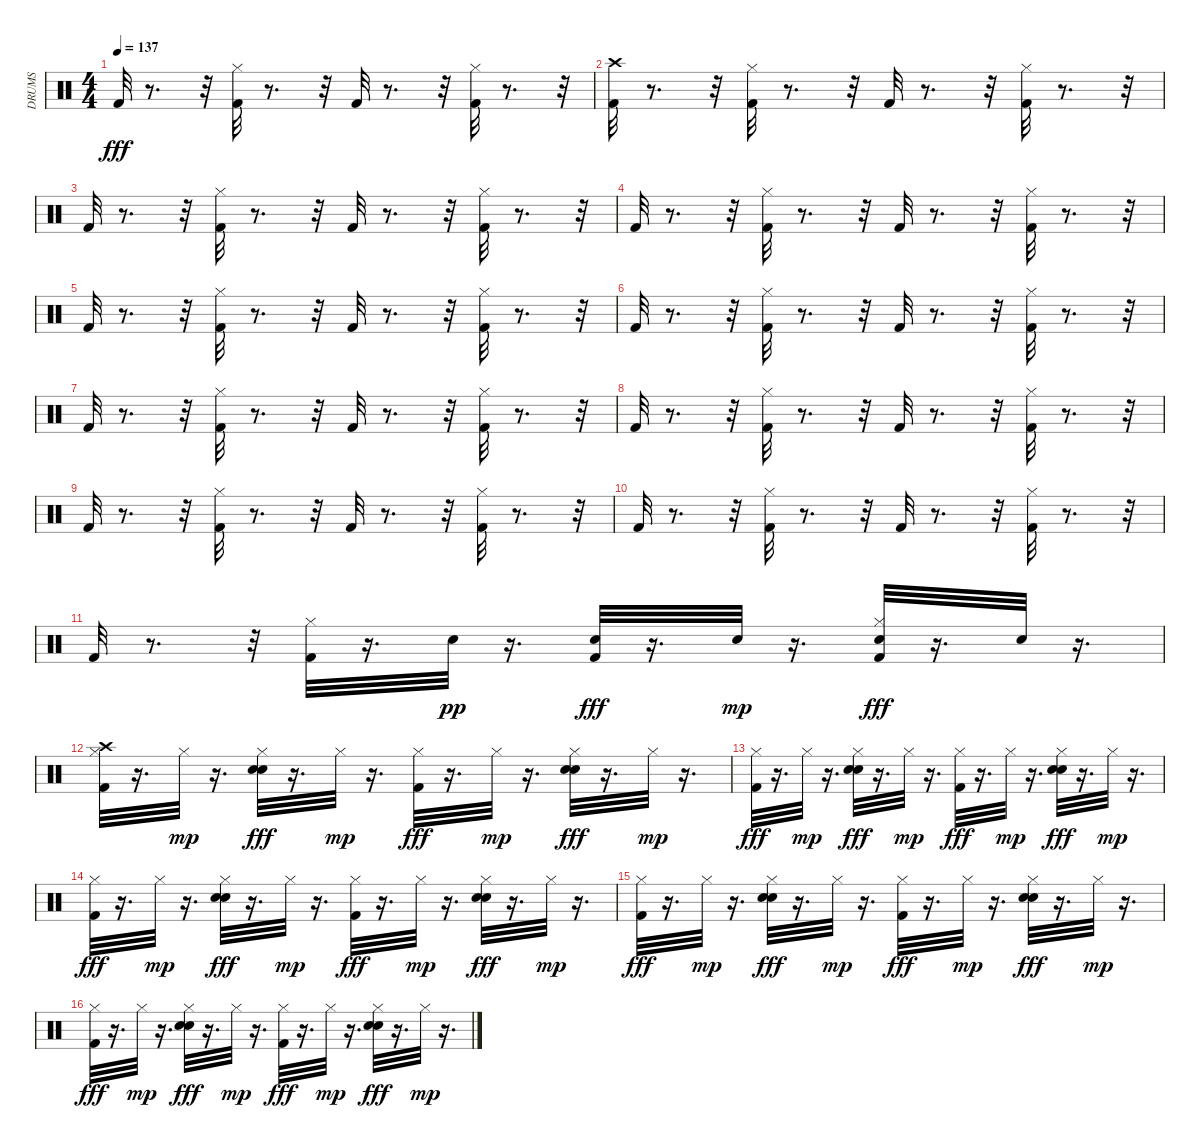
\track ("DRUMS" "DRUMS") {instrument percussion}
\staff {score}
\articulation defaults
\ts (4 4)
\tempo 137
\clef neutral
\ks c "Kick (hit) 2".32{dy fff}
r.8{d} r.32 ("Kick (hit) 2" "Hi-Hat (closed)").32 r.8{d} r.32 "Kick (hit) 2".32 r.8{d} r.32 ("Hi-Hat (closed)" "Kick (hit) 2").32 r.8{d} r.32 |
("Crash high (hit)" "Kick (hit) 2").32 r.8{d} r.32 ("Hi-Hat (closed)" "Kick (hit) 2").32 r.8{d} r.32 "Kick (hit) 2".32 r.8{d} r.32 ("Hi-Hat (closed)" "Kick (hit) 2").32 r.8{d} r.32 |
"Kick (hit) 2".32 r.8{d} r.32 ("Hi-Hat (closed)" "Kick (hit) 2").32 r.8{d} r.32 "Kick (hit) 2".32 r.8{d} r.32 ("Hi-Hat (closed)" "Kick (hit) 2").32 r.8{d} r.32 |
"Kick (hit) 2".32 r.8{d} r.32 ("Hi-Hat (closed)" "Kick (hit) 2").32 r.8{d} r.32 "Kick (hit) 2".32 r.8{d} r.32 ("Hi-Hat (closed)" "Kick (hit) 2").32 r.8{d} r.32 |
"Kick (hit) 2".32 r.8{d} r.32 ("Hi-Hat (closed)" "Kick (hit) 2").32 r.8{d} r.32 "Kick (hit) 2".32 r.8{d} r.32 ("Hi-Hat (closed)" "Kick (hit) 2").32 r.8{d} r.32 |
"Kick (hit) 2".32 r.8{d} r.32 ("Hi-Hat (closed)" "Kick (hit) 2").32 r.8{d} r.32 "Kick (hit) 2".32 r.8{d} r.32 ("Hi-Hat (closed)" "Kick (hit) 2").32 r.8{d} r.32 |
"Kick (hit) 2".32 r.8{d} r.32 ("Hi-Hat (closed)" "Kick (hit) 2").32 r.8{d} r.32 "Kick (hit) 2".32 r.8{d} r.32 ("Kick (hit) 2" "Hi-Hat (closed)").32 r.8{d} r.32 |
"Kick (hit) 2".32 r.8{d} r.32 ("Hi-Hat (closed)" "Kick (hit) 2").32 r.8{d} r.32 "Kick (hit) 2".32 r.8{d} r.32 ("Hi-Hat (closed)" "Kick (hit) 2").32 r.8{d} r.32 |
"Kick (hit) 2".32 r.8{d} r.32 ("Hi-Hat (closed)" "Kick (hit) 2").32 r.8{d} r.32 "Kick (hit) 2".32 r.8{d} r.32 ("Hi-Hat (closed)" "Kick (hit) 2").32 r.8{d} r.32 |
"Kick (hit) 2".32 r.8{d} r.32 ("Hi-Hat (closed)" "Kick (hit) 2").32 r.8{d} r.32 "Kick (hit) 2".32 r.8{d} r.32 ("Hi-Hat (closed)" "Kick (hit) 2").32 r.8{d} r.32 |
"Kick (hit) 2".32 r.8{d} r.32 ("Hi-Hat (closed)" "Kick (hit) 2").32 r.16{d} "Snare (hit) 2".32{dy pp} r.16{d} ("Snare (hit) 2" "Kick (hit) 2").32{dy fff} r.16{d} "Snare (hit) 2".32{dy mp} r.16{d} ("Hi-Hat (closed)" "Snare (hit) 2" "Kick (hit) 2").32{dy fff} r.16{d} "Snare (hit) 2".32 r.16{d} |
("Crash high (hit)" "Hi-Hat (closed)" "Kick (hit) 2").32 r.16{d} "Hi-Hat (closed)".32{dy mp} r.16{d} ("Hand Clap (hit)" "Hi-Hat (closed)" "Snare (hit) 2").32{dy fff} r.16{d} "Hi-Hat (closed)".32{dy mp} r.16{d} ("Hi-Hat (closed)" "Kick (hit) 2").32{dy fff} r.16{d} "Hi-Hat (closed)".32{dy mp} r.16{d} ("Hand Clap (hit)" "Hi-Hat (closed)" "Snare (hit) 2").32{dy fff} r.16{d} "Hi-Hat (closed)".32{dy mp} r.16{d} |
("Hi-Hat (closed)" "Kick (hit) 2").32{dy fff} r.16{d} "Hi-Hat (closed)".32{dy mp} r.16{d} ("Snare (hit) 2" "Hand Clap (hit)" "Hi-Hat (closed)").32{dy fff} r.16{d} "Hi-Hat (closed)".32{dy mp} r.16{d} ("Hi-Hat (closed)" "Kick (hit) 2").32{dy fff} r.16{d} "Hi-Hat (closed)".32{dy mp} r.16{d} ("Hand Clap (hit)" "Hi-Hat (closed)" "Snare (hit) 2").32{dy fff} r.16{d} "Hi-Hat (closed)".32{dy mp} r.16{d} |
("Hi-Hat (closed)" "Kick (hit) 2").32{dy fff} r.16{d} "Hi-Hat (closed)".32{dy mp} r.16{d} ("Hand Clap (hit)" "Hi-Hat (closed)" "Snare (hit) 2").32{dy fff} r.16{d} "Hi-Hat (closed)".32{dy mp} r.16{d} ("Hi-Hat (closed)" "Kick (hit) 2").32{dy fff} r.16{d} "Hi-Hat (closed)".32{dy mp} r.16{d} ("Hand Clap (hit)" "Hi-Hat (closed)" "Snare (hit) 2").32{dy fff} r.16{d} "Hi-Hat (closed)".32{dy mp} r.16{d} |
("Hi-Hat (closed)" "Kick (hit) 2").32{dy fff} r.16{d} "Hi-Hat (closed)".32{dy mp} r.16{d} ("Hand Clap (hit)" "Hi-Hat (closed)" "Snare (hit) 2").32{dy fff} r.16{d} "Hi-Hat (closed)".32{dy mp} r.16{d} ("Hi-Hat (closed)" "Kick (hit) 2").32{dy fff} r.16{d} "Hi-Hat (closed)".32{dy mp} r.16{d} ("Hand Clap (hit)" "Hi-Hat (closed)" "Snare (hit) 2").32{dy fff} r.16{d} "Hi-Hat (closed)".32{dy mp} r.16{d} |
("Hi-Hat (closed)" "Kick (hit) 2").32{dy fff} r.16{d} "Hi-Hat (closed)".32{dy mp} r.16{d} ("Hand Clap (hit)" "Hi-Hat (closed)" "Snare (hit) 2").32{dy fff} r.16{d} "Hi-Hat (closed)".32{dy mp} r.16{d} ("Hi-Hat (closed)" "Kick (hit) 2").32{dy fff} r.16{d} "Hi-Hat (closed)".32{dy mp} r.16{d} ("Hand Clap (hit)" "Hi-Hat (closed)" "Snare (hit) 2").32{dy fff} r.16{d} "Hi-Hat (closed)".32{dy mp} r.16{d}
